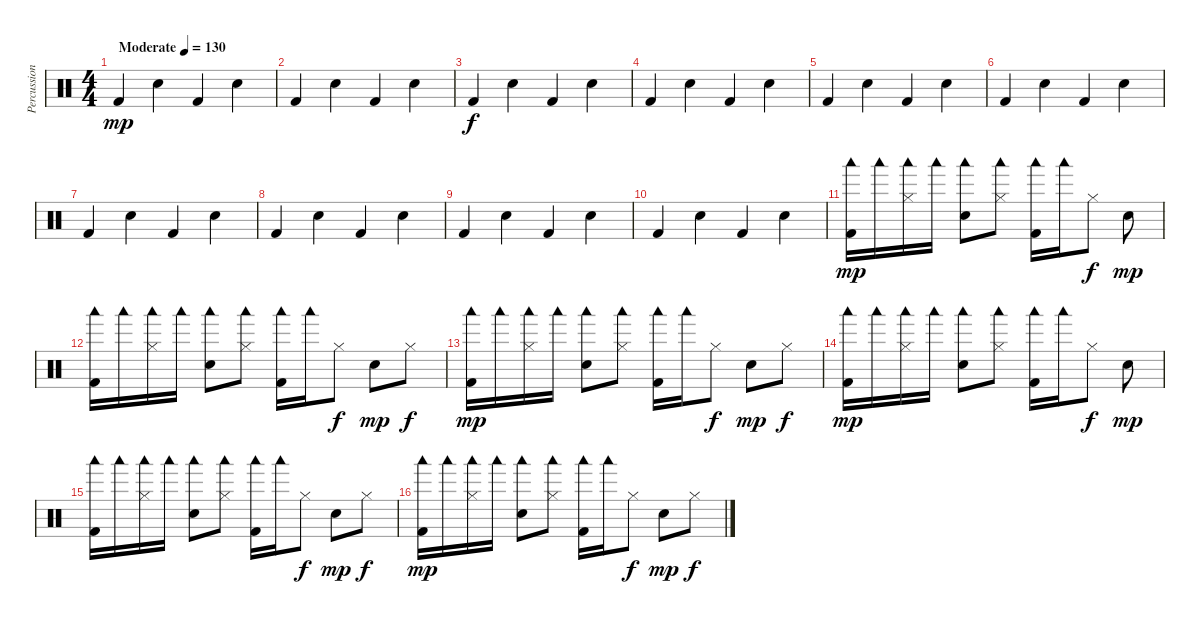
\track ("Percussion" "Percussion") {instrument percussion}
\staff {score}
\articulation defaults
\ts (4 4)
\tempo (130 "Moderate")
\clef neutral
\ks c "Kick (hit) 2".4{dy mp} "Electric Snare (hit)".4 "Kick (hit) 2".4 "Electric Snare (hit)".4
|
"Kick (hit) 2".4 "Electric Snare (hit)".4 "Kick (hit) 2".4 "Electric Snare (hit)".4 |
"Kick (hit) 2".4{dy f} "Electric Snare (hit)".4 "Kick (hit) 2".4 "Electric Snare (hit)".4 |
"Kick (hit) 2".4 "Electric Snare (hit)".4 "Kick (hit) 2".4 "Electric Snare (hit)".4 |
"Kick (hit) 2".4 "Electric Snare (hit)".4 "Kick (hit) 2".4 "Electric Snare (hit)".4 |
"Kick (hit) 2".4 "Electric Snare (hit)".4 "Kick (hit) 2".4 "Electric Snare (hit)".4 |
"Kick (hit) 2".4 "Electric Snare (hit)".4 "Kick (hit) 2".4 "Electric Snare (hit)".4 |
"Kick (hit) 2".4 "Electric Snare (hit)".4 "Kick (hit) 2".4 "Electric Snare (hit)".4 |
"Kick (hit) 2".4 "Electric Snare (hit)".4 "Kick (hit) 2".4 "Electric Snare (hit)".4 |
"Kick (hit) 2".4 "Electric Snare (hit)".4 "Kick (hit) 2".4 "Electric Snare (hit)".4 |
("Woodblock low (hit)" "Kick (hit) 2").16{dy mp} "Woodblock low (hit)".16 ("Woodblock low (hit)" "Hi-Hat (closed)").16 "Woodblock low (hit)".16 ("Woodblock low (hit)" "Electric Snare (hit)").8 ("Woodblock low (hit)" "Hi-Hat (closed)").8 ("Woodblock low (hit)" "Kick (hit) 2").16 "Woodblock low (hit)".16 "Hi-Hat (closed)".8{dy f} "Electric Snare (hit)".8{dy mp} |
("Woodblock low (hit)" "Kick (hit) 2").16 "Woodblock low (hit)".16 ("Woodblock low (hit)" "Hi-Hat (closed)").16 "Woodblock low (hit)".16 ("Woodblock low (hit)" "Electric Snare (hit)").8 ("Woodblock low (hit)" "Hi-Hat (closed)").8 ("Woodblock low (hit)" "Kick (hit) 2").16 "Woodblock low (hit)".16 "Hi-Hat (closed)".8{dy f} "Electric Snare (hit)".8{dy mp} "Hi-Hat (closed)".8{dy f} |
("Woodblock low (hit)" "Kick (hit) 2").16{dy mp} "Woodblock low (hit)".16 ("Woodblock low (hit)" "Hi-Hat (closed)").16 "Woodblock low (hit)".16 ("Woodblock low (hit)" "Electric Snare (hit)").8 ("Woodblock low (hit)" "Hi-Hat (closed)").8 ("Woodblock low (hit)" "Kick (hit) 2").16 "Woodblock low (hit)".16 "Hi-Hat (closed)".8{dy f} "Electric Snare (hit)".8{dy mp} "Hi-Hat (closed)".8{dy f} |
("Woodblock low (hit)" "Kick (hit) 2").16{dy mp} "Woodblock low (hit)".16 ("Woodblock low (hit)" "Hi-Hat (closed)").16 "Woodblock low (hit)".16 ("Woodblock low (hit)" "Electric Snare (hit)").8 ("Woodblock low (hit)" "Hi-Hat (closed)").8 ("Woodblock low (hit)" "Kick (hit) 2").16 "Woodblock low (hit)".16 "Hi-Hat (closed)".8{dy f} "Electric Snare (hit)".8{dy mp} |
("Woodblock low (hit)" "Kick (hit) 2").16 "Woodblock low (hit)".16 ("Woodblock low (hit)" "Hi-Hat (closed)").16 "Woodblock low (hit)".16 ("Woodblock low (hit)" "Electric Snare (hit)").8 ("Woodblock low (hit)" "Hi-Hat (closed)").8 ("Woodblock low (hit)" "Kick (hit) 2").16 "Woodblock low (hit)".16 "Hi-Hat (closed)".8{dy f} "Electric Snare (hit)".8{dy mp} "Hi-Hat (closed)".8{dy f} |
("Woodblock low (hit)" "Kick (hit) 2").16{dy mp} "Woodblock low (hit)".16 ("Woodblock low (hit)" "Hi-Hat (closed)").16 "Woodblock low (hit)".16 ("Woodblock low (hit)" "Electric Snare (hit)").8 ("Woodblock low (hit)" "Hi-Hat (closed)").8 ("Woodblock low (hit)" "Kick (hit) 2").16 "Woodblock low (hit)".16 "Hi-Hat (closed)".8{dy f} "Electric Snare (hit)".8{dy mp} "Hi-Hat (closed)".8{dy f}
